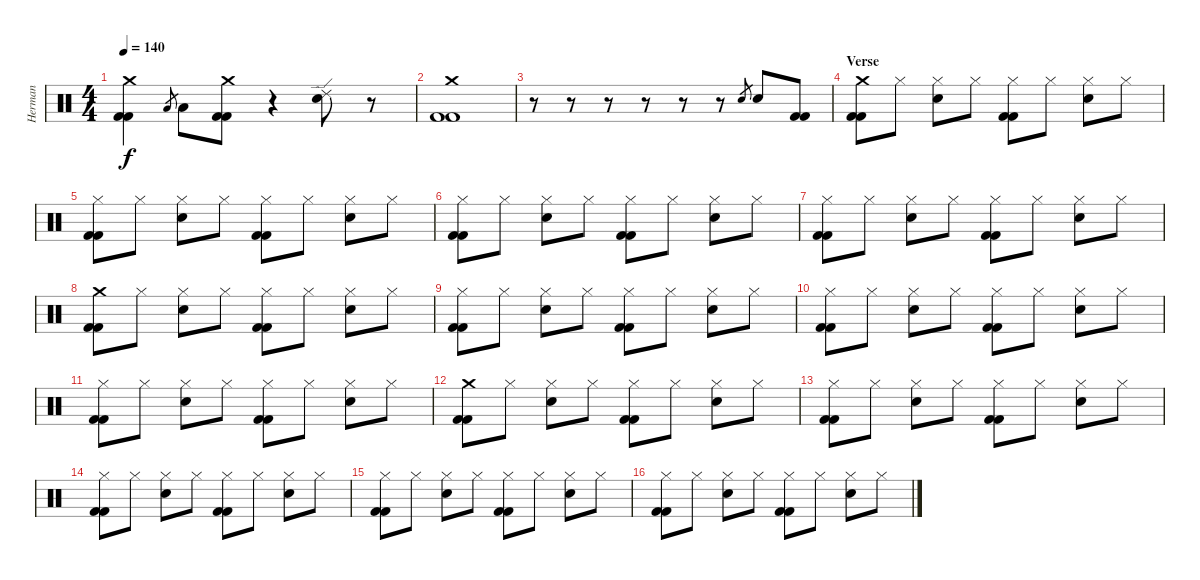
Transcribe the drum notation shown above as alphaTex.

\track ("Herman" "Herman") {instrument percussion}
\staff {score}
\articulation defaults
\ts (4 4)
\tempo 140
\clef neutral
\ks c
("Crash medium (hit)" "Kick (hit) 2" "Kick (hit) 2").4{dy f} "Low Tom (hit)".8{gr} "Low Tom (hit)".8 ("Crash medium (hit)" "Kick (hit) 2" "Kick (hit) 2").8 r.4 ("Ride (edge) 2" "Electric Snare (hit)").8 r.8 |
("Crash medium (hit)" "Kick (hit) 2" "Kick (hit) 2").1 |
r.8 r.8 r.8 r.8 r.8 r.8 "Electric Snare (hit)".8{gr} "Electric Snare (hit)".8 ("Kick (hit) 2" "Kick (hit) 2").8 |
\section ("" "Verse")
("Crash medium (hit)" "Kick (hit) 2" "Kick (hit) 2").8 "Hi-Hat (closed)".8 ("Hi-Hat (closed)" "Electric Snare (hit)").8 "Hi-Hat (closed)".8 ("Kick (hit) 2" "Kick (hit) 2" "Hi-Hat (closed)").8 "Hi-Hat (closed)".8 ("Hi-Hat (closed)" "Electric Snare (hit)").8 "Hi-Hat (closed)".8 |
("Hi-Hat (closed)" "Kick (hit) 2" "Kick (hit) 2").8 "Hi-Hat (closed)".8 ("Hi-Hat (closed)" "Electric Snare (hit)").8 "Hi-Hat (closed)".8 ("Kick (hit) 2" "Kick (hit) 2" "Hi-Hat (closed)").8 "Hi-Hat (closed)".8 ("Hi-Hat (closed)" "Electric Snare (hit)").8 "Hi-Hat (closed)".8 |
("Hi-Hat (closed)" "Kick (hit) 2" "Kick (hit) 2").8 "Hi-Hat (closed)".8 ("Hi-Hat (closed)" "Electric Snare (hit)").8 "Hi-Hat (closed)".8 ("Kick (hit) 2" "Kick (hit) 2" "Hi-Hat (closed)").8 "Hi-Hat (closed)".8 ("Hi-Hat (closed)" "Electric Snare (hit)").8 "Hi-Hat (closed)".8 |
("Hi-Hat (closed)" "Kick (hit) 2" "Kick (hit) 2").8 "Hi-Hat (closed)".8 ("Hi-Hat (closed)" "Electric Snare (hit)").8 "Hi-Hat (closed)".8 ("Kick (hit) 2" "Kick (hit) 2" "Hi-Hat (closed)").8 "Hi-Hat (closed)".8 ("Hi-Hat (closed)" "Electric Snare (hit)").8 "Hi-Hat (closed)".8 |
("Crash medium (hit)" "Kick (hit) 2" "Kick (hit) 2").8 "Hi-Hat (closed)".8 ("Hi-Hat (closed)" "Electric Snare (hit)").8 "Hi-Hat (closed)".8 ("Kick (hit) 2" "Kick (hit) 2" "Hi-Hat (closed)").8 "Hi-Hat (closed)".8 ("Hi-Hat (closed)" "Electric Snare (hit)").8 "Hi-Hat (closed)".8 |
("Hi-Hat (closed)" "Kick (hit) 2" "Kick (hit) 2").8 "Hi-Hat (closed)".8 ("Hi-Hat (closed)" "Electric Snare (hit)").8 "Hi-Hat (closed)".8 ("Kick (hit) 2" "Kick (hit) 2" "Hi-Hat (closed)").8 "Hi-Hat (closed)".8 ("Hi-Hat (closed)" "Electric Snare (hit)").8 "Hi-Hat (closed)".8 |
("Hi-Hat (closed)" "Kick (hit) 2" "Kick (hit) 2").8 "Hi-Hat (closed)".8 ("Hi-Hat (closed)" "Electric Snare (hit)").8 "Hi-Hat (closed)".8 ("Kick (hit) 2" "Kick (hit) 2" "Hi-Hat (closed)").8 "Hi-Hat (closed)".8 ("Hi-Hat (closed)" "Electric Snare (hit)").8 "Hi-Hat (closed)".8 |
("Hi-Hat (closed)" "Kick (hit) 2" "Kick (hit) 2").8 "Hi-Hat (closed)".8 ("Hi-Hat (closed)" "Electric Snare (hit)").8 "Hi-Hat (closed)".8 ("Kick (hit) 2" "Kick (hit) 2" "Hi-Hat (closed)").8 "Hi-Hat (closed)".8 ("Hi-Hat (closed)" "Electric Snare (hit)").8 "Hi-Hat (closed)".8 |
("Crash medium (hit)" "Kick (hit) 2" "Kick (hit) 2").8 "Hi-Hat (closed)".8 ("Hi-Hat (closed)" "Electric Snare (hit)").8 "Hi-Hat (closed)".8 ("Kick (hit) 2" "Kick (hit) 2" "Hi-Hat (closed)").8 "Hi-Hat (closed)".8 ("Hi-Hat (closed)" "Electric Snare (hit)").8 "Hi-Hat (closed)".8 |
("Hi-Hat (closed)" "Kick (hit) 2" "Kick (hit) 2").8 "Hi-Hat (closed)".8 ("Hi-Hat (closed)" "Electric Snare (hit)").8 "Hi-Hat (closed)".8 ("Kick (hit) 2" "Kick (hit) 2" "Hi-Hat (closed)").8 "Hi-Hat (closed)".8 ("Hi-Hat (closed)" "Electric Snare (hit)").8 "Hi-Hat (closed)".8 |
("Hi-Hat (closed)" "Kick (hit) 2" "Kick (hit) 2").8 "Hi-Hat (closed)".8 ("Hi-Hat (closed)" "Electric Snare (hit)").8 "Hi-Hat (closed)".8 ("Kick (hit) 2" "Kick (hit) 2" "Hi-Hat (closed)").8 "Hi-Hat (closed)".8 ("Hi-Hat (closed)" "Electric Snare (hit)").8 "Hi-Hat (closed)".8 |
("Hi-Hat (closed)" "Kick (hit) 2" "Kick (hit) 2").8 "Hi-Hat (closed)".8 ("Hi-Hat (closed)" "Electric Snare (hit)").8 "Hi-Hat (closed)".8 ("Kick (hit) 2" "Kick (hit) 2" "Hi-Hat (closed)").8 "Hi-Hat (closed)".8 ("Hi-Hat (closed)" "Electric Snare (hit)").8 "Hi-Hat (closed)".8 |
("Hi-Hat (closed)" "Kick (hit) 2" "Kick (hit) 2").8 "Hi-Hat (closed)".8 ("Hi-Hat (closed)" "Electric Snare (hit)").8 "Hi-Hat (closed)".8 ("Kick (hit) 2" "Kick (hit) 2" "Hi-Hat (closed)").8 "Hi-Hat (closed)".8 ("Hi-Hat (closed)" "Electric Snare (hit)").8 "Hi-Hat (closed)".8
